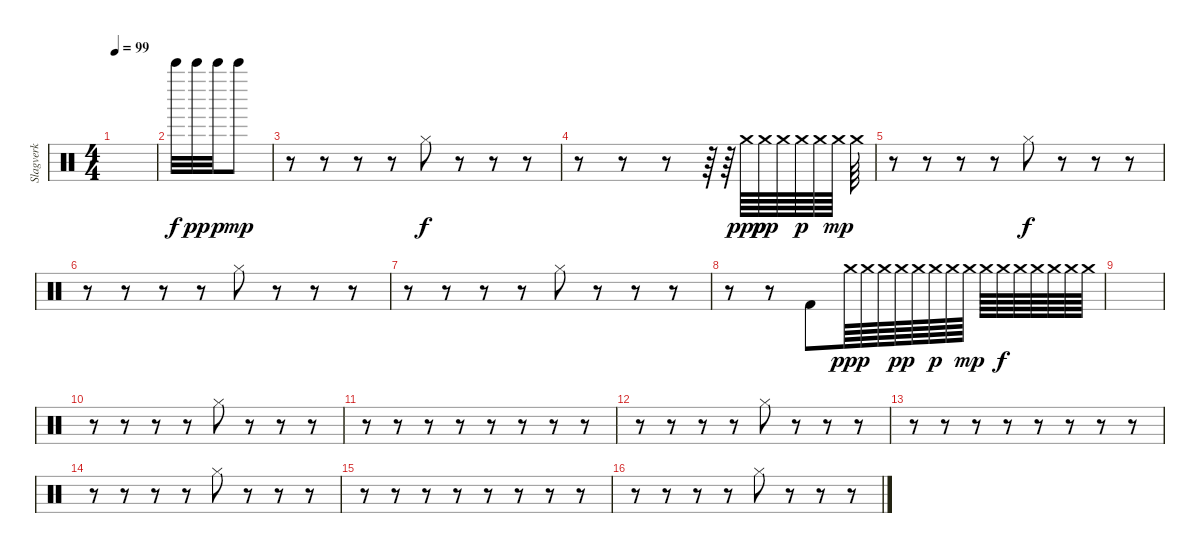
\track ("Slagverk" "Slagverk") {instrument percussion}
\staff {score}
\articulation defaults
\ts (4 4)
\tempo 99
\clef neutral
\ks c
|
"Bell Tree (hit)".32 "Bell Tree (hit)".32{dy pp} "Bell Tree (hit)".32{dy p} "Bell Tree (hit)".8{dy mp} |
r.8 r.8 r.8 r.8 "Hi-Hat (closed)".8{dy f} r.8 r.8 r.8 |
r.8 r.8 r.8 r.64 r.64 "Crash medium (hit)".64{dy ppp} "Crash medium (hit)".64{dy pp} "Crash medium (hit)".64 "Crash medium (hit)".64{dy p} "Crash medium (hit)".64 "Crash medium (hit)".64{dy mp} "Crash medium (hit)".64 |
r.8 r.8 r.8 r.8 "Hi-Hat (closed)".8{dy f} r.8 r.8 r.8 |
r.8 r.8 r.8 r.8 "Hi-Hat (closed)".8 r.8 r.8 r.8 |
r.8 r.8 r.8 r.8 "Hi-Hat (closed)".8 r.8 r.8 r.8 |
r.8 r.8 "Kick (hit) 2".8 "Crash medium (hit)".64{dy ppp} "Crash medium (hit)".64 "Crash medium (hit)".64 "Crash medium (hit)".64{dy pp} "Crash medium (hit)".64 "Crash medium (hit)".64{dy p} "Crash medium (hit)".64 "Crash medium (hit)".64{dy mp} "Crash medium (hit)".64 "Crash medium (hit)".64{dy f} "Crash medium (hit)".64 "Crash medium (hit)".64 "Crash medium (hit)".64 "Crash medium (hit)".64 "Crash medium (hit)".64 |
|
r.8 r.8 r.8 r.8 "Hi-Hat (closed)".8 r.8 r.8 r.8 |
r.8 r.8 r.8 r.8 r.8 r.8 r.8 r.8 |
r.8 r.8 r.8 r.8 "Hi-Hat (closed)".8 r.8 r.8 r.8 |
r.8 r.8 r.8 r.8 r.8 r.8 r.8 r.8 |
r.8 r.8 r.8 r.8 "Hi-Hat (closed)".8 r.8 r.8 r.8 |
r.8 r.8 r.8 r.8 r.8 r.8 r.8 r.8 |
r.8 r.8 r.8 r.8 "Hi-Hat (closed)".8 r.8 r.8 r.8
